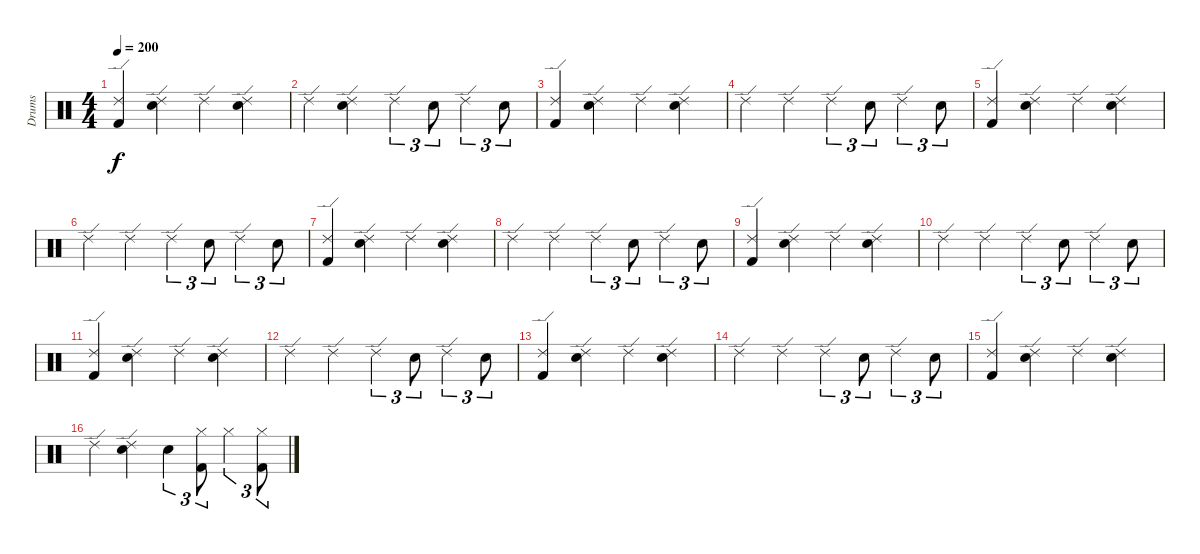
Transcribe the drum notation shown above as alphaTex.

\track ("Drums" "Drums") {instrument percussion}
\staff {score}
\articulation defaults
\ts (4 4)
\tempo 200
\clef neutral
\ks c
("Ride (edge) 2" "Kick (hit) 2").4{dy f} ("Ride (edge) 2" "Snare (hit) 2").4 "Ride (edge) 2".4 ("Ride (edge) 2" "Snare (hit) 2").4 |
"Ride (edge) 2".4 ("Ride (edge) 2" "Snare (hit) 2").4 "Ride (edge) 2".4{tu (3 2)} "Snare (hit) 2".8{tu (3 2)} "Ride (edge) 2".4{tu (3 2)} "Snare (hit) 2".8{tu (3 2)} |
("Ride (edge) 2" "Kick (hit) 2").4 ("Ride (edge) 2" "Snare (hit) 2").4 "Ride (edge) 2".4 ("Ride (edge) 2" "Snare (hit) 2").4 |
"Ride (edge) 2".4 "Ride (edge) 2".4 "Ride (edge) 2".4{tu (3 2)} "Snare (hit) 2".8{tu (3 2)} "Ride (edge) 2".4{tu (3 2)} "Snare (hit) 2".8{tu (3 2)} |
("Ride (edge) 2" "Kick (hit) 2").4 ("Ride (edge) 2" "Snare (hit) 2").4 "Ride (edge) 2".4 ("Ride (edge) 2" "Snare (hit) 2").4 |
"Ride (edge) 2".4 "Ride (edge) 2".4 "Ride (edge) 2".4{tu (3 2)} "Snare (hit) 2".8{tu (3 2)} "Ride (edge) 2".4{tu (3 2)} "Snare (hit) 2".8{tu (3 2)} |
("Ride (edge) 2" "Kick (hit) 2").4 ("Ride (edge) 2" "Snare (hit) 2").4 "Ride (edge) 2".4 ("Ride (edge) 2" "Snare (hit) 2").4 |
"Ride (edge) 2".4 "Ride (edge) 2".4 "Ride (edge) 2".4{tu (3 2)} "Snare (hit) 2".8{tu (3 2)} "Ride (edge) 2".4{tu (3 2)} "Snare (hit) 2".8{tu (3 2)} |
("Ride (edge) 2" "Kick (hit) 2").4 ("Ride (edge) 2" "Snare (hit) 2").4 "Ride (edge) 2".4 ("Ride (edge) 2" "Snare (hit) 2").4 |
"Ride (edge) 2".4 "Ride (edge) 2".4 "Ride (edge) 2".4{tu (3 2)} "Snare (hit) 2".8{tu (3 2)} "Ride (edge) 2".4{tu (3 2)} "Snare (hit) 2".8{tu (3 2)} |
("Ride (edge) 2" "Kick (hit) 2").4 ("Ride (edge) 2" "Snare (hit) 2").4 "Ride (edge) 2".4 ("Ride (edge) 2" "Snare (hit) 2").4 |
"Ride (edge) 2".4 "Ride (edge) 2".4 "Ride (edge) 2".4{tu (3 2)} "Snare (hit) 2".8{tu (3 2)} "Ride (edge) 2".4{tu (3 2)} "Snare (hit) 2".8{tu (3 2)} |
("Ride (edge) 2" "Kick (hit) 2").4 ("Ride (edge) 2" "Snare (hit) 2").4 "Ride (edge) 2".4 ("Ride (edge) 2" "Snare (hit) 2").4 |
"Ride (edge) 2".4 "Ride (edge) 2".4 "Ride (edge) 2".4{tu (3 2)} "Snare (hit) 2".8{tu (3 2)} "Ride (edge) 2".4{tu (3 2)} "Snare (hit) 2".8{tu (3 2)} |
("Ride (edge) 2" "Kick (hit) 2").4 ("Ride (edge) 2" "Snare (hit) 2").4 "Ride (edge) 2".4 ("Ride (edge) 2" "Snare (hit) 2").4 |
"Ride (edge) 2".4 ("Ride (edge) 2" "Snare (hit) 2").4 "Snare (hit) 2".4{tu (3 2)} ("Hi-Hat (closed)" "Kick (hit) 2").8{tu (3 2)} "Hi-Hat (closed)".4{tu (3 2)} ("Hi-Hat (closed)" "Kick (hit) 2").8{tu (3 2)}
